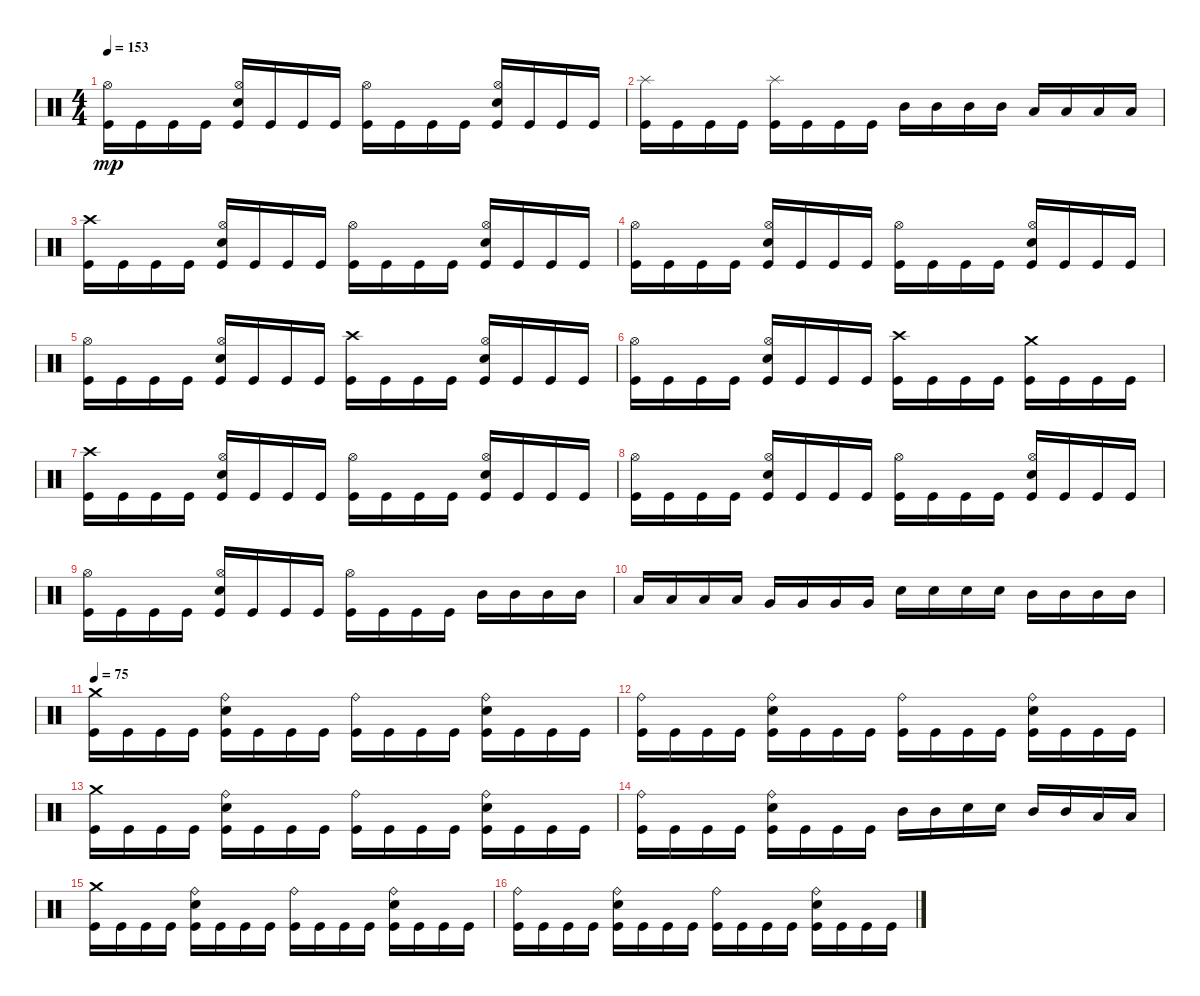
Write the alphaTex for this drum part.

\track "" {instrument percussion}
\staff {score}
\articulation defaults
\ts (4 4)
\tempo 153
\clef neutral
\ks c
("Kick (hit)" "Hi-Hat (open)").16{dy mp} "Kick (hit)".16 "Kick (hit)".16 "Kick (hit)".16 ("Kick (hit)" "Snare (hit) 2" "Hi-Hat (open)").16 "Kick (hit)".16 "Kick (hit)".16 "Kick (hit)".16 ("Kick (hit)" "Hi-Hat (open)").16 "Kick (hit)".16 "Kick (hit)".16 "Kick (hit)".16 ("Kick (hit)" "Snare (hit) 2" "Hi-Hat (open)").16 "Kick (hit)".16 "Kick (hit)".16 "Kick (hit)".16 |
("Kick (hit)" "Splash (hit)").16 "Kick (hit)".16 "Kick (hit)".16 "Kick (hit)".16 ("Kick (hit)" "Splash (hit)").16 "Kick (hit)".16 "Kick (hit)".16 "Kick (hit)".16 "Mid Tom (hit)".16 "Mid Tom (hit)".16 "Mid Tom (hit)".16 "Mid Tom (hit)".16 "Low Tom (hit)".16 "Low Tom (hit)".16 "Low Tom (hit)".16 "Low Tom (hit)".16 |
("Kick (hit)" "Crash high (hit)").16 "Kick (hit)".16 "Kick (hit)".16 "Kick (hit)".16 ("Kick (hit)" "Snare (hit) 2" "Hi-Hat (open)").16 "Kick (hit)".16 "Kick (hit)".16 "Kick (hit)".16 ("Kick (hit)" "Hi-Hat (open)").16 "Kick (hit)".16 "Kick (hit)".16 "Kick (hit)".16 ("Kick (hit)" "Snare (hit) 2" "Hi-Hat (open)").16 "Kick (hit)".16 "Kick (hit)".16 "Kick (hit)".16 |
("Kick (hit)" "Hi-Hat (open)").16 "Kick (hit)".16 "Kick (hit)".16 "Kick (hit)".16 ("Kick (hit)" "Snare (hit) 2" "Hi-Hat (open)").16 "Kick (hit)".16 "Kick (hit)".16 "Kick (hit)".16 ("Kick (hit)" "Hi-Hat (open)").16 "Kick (hit)".16 "Kick (hit)".16 "Kick (hit)".16 ("Kick (hit)" "Snare (hit) 2" "Hi-Hat (open)").16 "Kick (hit)".16 "Kick (hit)".16 "Kick (hit)".16 |
("Kick (hit)" "Hi-Hat (open)").16 "Kick (hit)".16 "Kick (hit)".16 "Kick (hit)".16 ("Kick (hit)" "Snare (hit) 2" "Hi-Hat (open)").16 "Kick (hit)".16 "Kick (hit)".16 "Kick (hit)".16 ("Kick (hit)" "Crash high (hit)").16 "Kick (hit)".16 "Kick (hit)".16 "Kick (hit)".16 ("Kick (hit)" "Snare (hit) 2" "Hi-Hat (open)").16 "Kick (hit)".16 "Kick (hit)".16 "Kick (hit)".16 |
("Hi-Hat (open)" "Kick (hit)").16 "Kick (hit)".16 "Kick (hit)".16 "Kick (hit)".16 ("Kick (hit)" "Snare (hit) 2" "Hi-Hat (open)").16 "Kick (hit)".16 "Kick (hit)".16 "Kick (hit)".16 ("Kick (hit)" "Crash high (hit)").16 "Kick (hit)".16 "Kick (hit)".16 "Kick (hit)".16 ("Kick (hit)" "Crash medium (hit)").16 "Kick (hit)".16 "Kick (hit)".16 "Kick (hit)".16 |
("Kick (hit)" "Crash high (hit)").16 "Kick (hit)".16 "Kick (hit)".16 "Kick (hit)".16 ("Kick (hit)" "Snare (hit) 2" "Hi-Hat (open)").16 "Kick (hit)".16 "Kick (hit)".16 "Kick (hit)".16 ("Kick (hit)" "Hi-Hat (open)").16 "Kick (hit)".16 "Kick (hit)".16 "Kick (hit)".16 ("Kick (hit)" "Snare (hit) 2" "Hi-Hat (open)").16 "Kick (hit)".16 "Kick (hit)".16 "Kick (hit)".16 |
("Kick (hit)" "Hi-Hat (open)").16 "Kick (hit)".16 "Kick (hit)".16 "Kick (hit)".16 ("Kick (hit)" "Snare (hit) 2" "Hi-Hat (open)").16 "Kick (hit)".16 "Kick (hit)".16 "Kick (hit)".16 ("Kick (hit)" "Hi-Hat (open)").16 "Kick (hit)".16 "Kick (hit)".16 "Kick (hit)".16 ("Kick (hit)" "Snare (hit) 2" "Hi-Hat (open)").16 "Kick (hit)".16 "Kick (hit)".16 "Kick (hit)".16 |
("Kick (hit)" "Hi-Hat (open)").16 "Kick (hit)".16 "Kick (hit)".16 "Kick (hit)".16 ("Kick (hit)" "Snare (hit) 2" "Hi-Hat (open)").16 "Kick (hit)".16 "Kick (hit)".16 "Kick (hit)".16 ("Kick (hit)" "Hi-Hat (open)").16 "Kick (hit)".16 "Kick (hit)".16 "Kick (hit)".16 "Mid Tom (hit)".16 "Mid Tom (hit)".16 "Mid Tom (hit)".16 "Mid Tom (hit)".16 |
"Low Tom (hit)".16 "Low Tom (hit)".16 "Low Tom (hit)".16 "Low Tom (hit)".16 "Very Low Tom (hit)".16 "Very Low Tom (hit)".16 "Very Low Tom (hit)".16 "Very Low Tom (hit)".16 "Snare (hit) 2".16 "Snare (hit) 2".16 "Snare (hit) 2".16 "Snare (hit) 2".16 "Mid Tom (hit)".16 "Mid Tom (hit)".16 "Mid Tom (hit)".16 "Mid Tom (hit)".16 |
\tempo 75
("Kick (hit)" "Crash medium (hit)").16 "Kick (hit)".16 "Kick (hit)".16 "Kick (hit)".16 ("Snare (hit) 2" "Ride (bell)" "Kick (hit)").16 "Kick (hit)".16 "Kick (hit)".16 "Kick (hit)".16 ("Kick (hit)" "Ride (bell)").16 "Kick (hit)".16 "Kick (hit)".16 "Kick (hit)".16 ("Snare (hit) 2" "Ride (bell)" "Kick (hit)").16 "Kick (hit)".16 "Kick (hit)".16 "Kick (hit)".16 |
("Kick (hit)" "Ride (bell)").16 "Kick (hit)".16 "Kick (hit)".16 "Kick (hit)".16 ("Snare (hit) 2" "Ride (bell)" "Kick (hit)").16 "Kick (hit)".16 "Kick (hit)".16 "Kick (hit)".16 ("Ride (bell)" "Kick (hit)").16 "Kick (hit)".16 "Kick (hit)".16 "Kick (hit)".16 ("Snare (hit) 2" "Ride (bell)" "Kick (hit)").16 "Kick (hit)".16 "Kick (hit)".16 "Kick (hit)".16 |
("Kick (hit)" "Crash medium (hit)").16 "Kick (hit)".16 "Kick (hit)".16 "Kick (hit)".16 ("Snare (hit) 2" "Ride (bell)" "Kick (hit)").16 "Kick (hit)".16 "Kick (hit)".16 "Kick (hit)".16 ("Kick (hit)" "Ride (bell)").16 "Kick (hit)".16 "Kick (hit)".16 "Kick (hit)".16 ("Snare (hit) 2" "Ride (bell)" "Kick (hit)").16 "Kick (hit)".16 "Kick (hit)".16 "Kick (hit)".16 |
("Kick (hit)" "Ride (bell)").16 "Kick (hit)".16 "Kick (hit)".16 "Kick (hit)".16 ("Snare (hit) 2" "Ride (bell)" "Kick (hit)").16 "Kick (hit)".16 "Kick (hit)".16 "Kick (hit)".16 "Mid Tom (hit)".16 "Mid Tom (hit)".16 "Snare (hit) 2".16 "Snare (hit) 2".16 "Mid Tom (hit)".16 "Mid Tom (hit)".16 "Low Tom (hit)".16 "Low Tom (hit)".16 |
("Kick (hit)" "Crash medium (hit)").16 "Kick (hit)".16 "Kick (hit)".16 "Kick (hit)".16 ("Snare (hit) 2" "Ride (bell)" "Kick (hit)").16 "Kick (hit)".16 "Kick (hit)".16 "Kick (hit)".16 ("Kick (hit)" "Ride (bell)").16 "Kick (hit)".16 "Kick (hit)".16 "Kick (hit)".16 ("Snare (hit) 2" "Ride (bell)" "Kick (hit)").16 "Kick (hit)".16 "Kick (hit)".16 "Kick (hit)".16 |
("Kick (hit)" "Ride (bell)").16 "Kick (hit)".16 "Kick (hit)".16 "Kick (hit)".16 ("Snare (hit) 2" "Ride (bell)" "Kick (hit)").16 "Kick (hit)".16 "Kick (hit)".16 "Kick (hit)".16 ("Ride (bell)" "Kick (hit)").16 "Kick (hit)".16 "Kick (hit)".16 "Kick (hit)".16 ("Snare (hit) 2" "Ride (bell)" "Kick (hit)").16 "Kick (hit)".16 "Kick (hit)".16 "Kick (hit)".16
